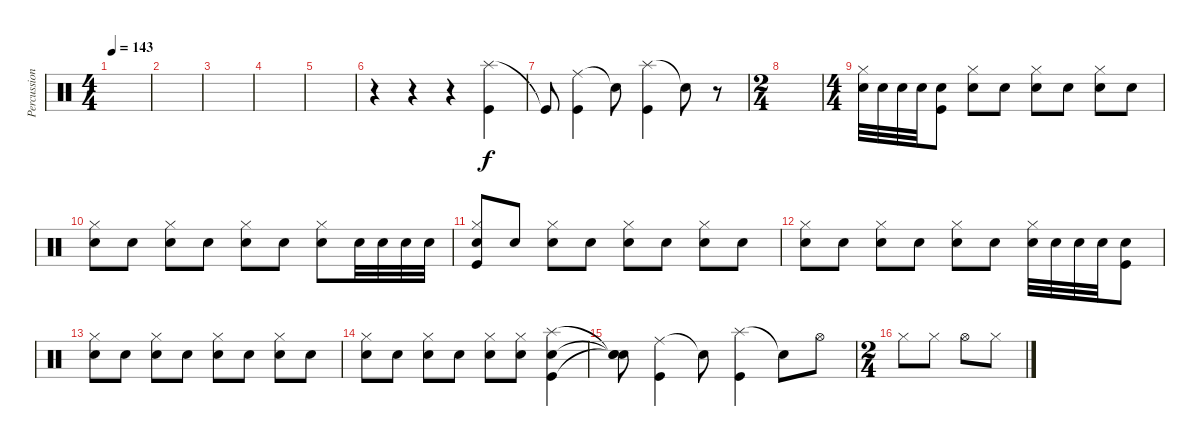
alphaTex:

\track ("Percussion" "Percussion") {instrument percussion}
\staff {score}
\articulation defaults
\ts (4 4)
\tempo 143
\clef neutral
\ks c
|
|
|
|
|
r.4 r.4 r.4 ("Splash (hit)" "Kick (hit)").4{volume 10} |
"Kick (hit)"{t}.8 ("Ride (middle)" "Kick (hit)").4 "Snare (hit)"{t}.8 ("Splash (hit)" "Kick (hit)").4 "Snare (hit)"{t}.8 r.8 |
\ts (2 4)
|
\ts (4 4)
("Hi-Hat (closed)" "Electric Snare (hit)").32{volume 7} "Electric Snare (hit)".32 "Electric Snare (hit)".32 "Electric Snare (hit)".32 ("Electric Snare (hit)" "Kick (hit)").8{volume 10} ("Hi-Hat (closed)" "Electric Snare (hit)").8{volume 8} "Electric Snare (hit)".8 ("Hi-Hat (closed)" "Electric Snare (hit)").8 "Electric Snare (hit)".8{volume 10} ("Hi-Hat (closed)" "Electric Snare (hit)").8{volume 8} "Electric Snare (hit)".8 |
("Hi-Hat (closed)" "Electric Snare (hit)").8 "Electric Snare (hit)".8 ("Hi-Hat (closed)" "Electric Snare (hit)").8{volume 10} "Electric Snare (hit)".8{volume 8} ("Hi-Hat (closed)" "Electric Snare (hit)").8 "Electric Snare (hit)".8{volume 10} ("Hi-Hat (closed)" "Electric Snare (hit)").8{volume 8} "Electric Snare (hit)".32{volume 8} "Electric Snare (hit)".32 "Electric Snare (hit)".32 "Electric Snare (hit)".32 |
("Hi-Hat (closed)" "Electric Snare (hit)" "Kick (hit)").8{volume 10} "Electric Snare (hit)".8{volume 8} ("Hi-Hat (closed)" "Electric Snare (hit)").8 "Electric Snare (hit)".8 ("Hi-Hat (closed)" "Electric Snare (hit)").8{volume 10} "Electric Snare (hit)".8{volume 8} ("Hi-Hat (closed)" "Electric Snare (hit)").8 "Electric Snare (hit)".8 |
("Hi-Hat (closed)" "Electric Snare (hit)").8 "Electric Snare (hit)".8{volume 10} ("Hi-Hat (closed)" "Electric Snare (hit)").8{volume 8} "Electric Snare (hit)".8 ("Hi-Hat (closed)" "Electric Snare (hit)").8{volume 10} "Electric Snare (hit)".8{volume 8} ("Hi-Hat (closed)" "Electric Snare (hit)").32{volume 7} "Electric Snare (hit)".32 "Electric Snare (hit)".32 "Electric Snare (hit)".32 ("Electric Snare (hit)" "Kick (hit)").8{volume 10} |
("Hi-Hat (closed)" "Electric Snare (hit)").8{volume 8} "Electric Snare (hit)".8 ("Hi-Hat (closed)" "Electric Snare (hit)").8 "Electric Snare (hit)".8{volume 10} ("Hi-Hat (closed)" "Electric Snare (hit)").8{volume 8} "Electric Snare (hit)".8 ("Hi-Hat (closed)" "Electric Snare (hit)").8 "Electric Snare (hit)".8 |
("Hi-Hat (closed)" "Electric Snare (hit)").8{volume 10} "Electric Snare (hit)".8{volume 8} ("Hi-Hat (closed)" "Electric Snare (hit)").8 "Electric Snare (hit)".8{volume 10} ("Hi-Hat (closed)" "Electric Snare (hit)").8{volume 8} ("Hi-Hat (closed)" "Electric Snare (hit)").8{volume 10} ("Splash (hit)" "Electric Snare (hit)" "Kick (hit)").4 |
("Snare (hit)"{t} "Snare (hit)"{t} "Snare (hit)"{t}).8 ("Ride (middle)" "Kick (hit)").4 "Snare (hit)"{t}.8 ("Splash (hit)" "Kick (hit)").4 "Snare (hit)"{t}.8 "Hi-Hat (open)".8{volume 10} |
\ts (2 4)
"Hi-Hat (closed)".8 "Hi-Hat (closed)".8 "Hi-Hat (open)".8 "Hi-Hat (closed)".8
